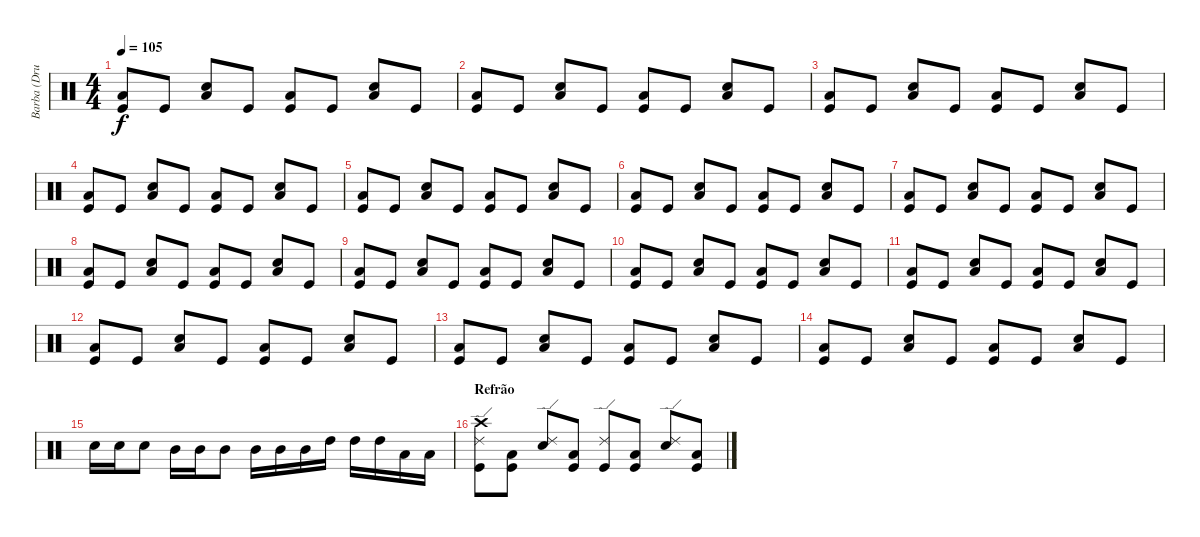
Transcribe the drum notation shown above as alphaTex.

\track ("Barba (Drums)" "Barba (Dru") {instrument percussion}
\staff {score}
\articulation defaults
\ts (4 4)
\tempo 105
\clef neutral
\ks c
("Low Floor Tom (hit)" "Kick (hit)").8{dy f volume 13} "Kick (hit)".8 ("Low Floor Tom (hit)" "Electric Snare (hit)").8 "Kick (hit)".8 ("Low Floor Tom (hit)" "Kick (hit)").8 "Kick (hit)".8 ("Low Floor Tom (hit)" "Electric Snare (hit)").8 "Kick (hit)".8 |
("Low Floor Tom (hit)" "Kick (hit)").8{volume 13} "Kick (hit)".8 ("Low Floor Tom (hit)" "Electric Snare (hit)").8 "Kick (hit)".8 ("Low Floor Tom (hit)" "Kick (hit)").8 "Kick (hit)".8 ("Low Floor Tom (hit)" "Electric Snare (hit)").8 "Kick (hit)".8 |
("Low Floor Tom (hit)" "Kick (hit)").8{volume 13} "Kick (hit)".8 ("Low Floor Tom (hit)" "Electric Snare (hit)").8 "Kick (hit)".8 ("Low Floor Tom (hit)" "Kick (hit)").8 "Kick (hit)".8 ("Low Floor Tom (hit)" "Electric Snare (hit)").8 "Kick (hit)".8 |
("Low Floor Tom (hit)" "Kick (hit)").8{volume 13} "Kick (hit)".8 ("Low Floor Tom (hit)" "Electric Snare (hit)").8 "Kick (hit)".8 ("Low Floor Tom (hit)" "Kick (hit)").8 "Kick (hit)".8 ("Low Floor Tom (hit)" "Electric Snare (hit)").8 "Kick (hit)".8 |
("Low Floor Tom (hit)" "Kick (hit)").8{volume 13} "Kick (hit)".8 ("Low Floor Tom (hit)" "Electric Snare (hit)").8 "Kick (hit)".8 ("Low Floor Tom (hit)" "Kick (hit)").8 "Kick (hit)".8 ("Low Floor Tom (hit)" "Electric Snare (hit)").8 "Kick (hit)".8 |
("Low Floor Tom (hit)" "Kick (hit)").8{volume 13} "Kick (hit)".8 ("Low Floor Tom (hit)" "Electric Snare (hit)").8 "Kick (hit)".8 ("Low Floor Tom (hit)" "Kick (hit)").8 "Kick (hit)".8 ("Low Floor Tom (hit)" "Electric Snare (hit)").8 "Kick (hit)".8 |
("Low Floor Tom (hit)" "Kick (hit)").8{volume 13} "Kick (hit)".8 ("Low Floor Tom (hit)" "Electric Snare (hit)").8 "Kick (hit)".8 ("Low Floor Tom (hit)" "Kick (hit)").8 "Kick (hit)".8 ("Low Floor Tom (hit)" "Electric Snare (hit)").8 "Kick (hit)".8 |
("Low Floor Tom (hit)" "Kick (hit)").8{volume 13} "Kick (hit)".8 ("Low Floor Tom (hit)" "Electric Snare (hit)").8 "Kick (hit)".8 ("Low Floor Tom (hit)" "Kick (hit)").8 "Kick (hit)".8 ("Low Floor Tom (hit)" "Electric Snare (hit)").8 "Kick (hit)".8 |
("Low Floor Tom (hit)" "Kick (hit)").8{volume 13} "Kick (hit)".8 ("Low Floor Tom (hit)" "Electric Snare (hit)").8 "Kick (hit)".8 ("Low Floor Tom (hit)" "Kick (hit)").8 "Kick (hit)".8 ("Low Floor Tom (hit)" "Electric Snare (hit)").8 "Kick (hit)".8 |
("Low Floor Tom (hit)" "Kick (hit)").8{volume 13} "Kick (hit)".8 ("Low Floor Tom (hit)" "Electric Snare (hit)").8 "Kick (hit)".8 ("Low Floor Tom (hit)" "Kick (hit)").8 "Kick (hit)".8 ("Low Floor Tom (hit)" "Electric Snare (hit)").8 "Kick (hit)".8 |
("Low Floor Tom (hit)" "Kick (hit)").8{volume 13} "Kick (hit)".8 ("Low Floor Tom (hit)" "Electric Snare (hit)").8 "Kick (hit)".8 ("Low Floor Tom (hit)" "Kick (hit)").8 "Kick (hit)".8 ("Low Floor Tom (hit)" "Electric Snare (hit)").8 "Kick (hit)".8 |
("Low Floor Tom (hit)" "Kick (hit)").8{volume 13} "Kick (hit)".8 ("Low Floor Tom (hit)" "Electric Snare (hit)").8 "Kick (hit)".8 ("Low Floor Tom (hit)" "Kick (hit)").8 "Kick (hit)".8 ("Low Floor Tom (hit)" "Electric Snare (hit)").8 "Kick (hit)".8 |
("Low Floor Tom (hit)" "Kick (hit)").8{volume 13} "Kick (hit)".8 ("Low Floor Tom (hit)" "Electric Snare (hit)").8 "Kick (hit)".8 ("Low Floor Tom (hit)" "Kick (hit)").8 "Kick (hit)".8 ("Low Floor Tom (hit)" "Electric Snare (hit)").8 "Kick (hit)".8 |
("Low Floor Tom (hit)" "Kick (hit)").8{volume 13} "Kick (hit)".8 ("Low Floor Tom (hit)" "Electric Snare (hit)").8 "Kick (hit)".8 ("Low Floor Tom (hit)" "Kick (hit)").8 "Kick (hit)".8 ("Low Floor Tom (hit)" "Electric Snare (hit)").8 "Kick (hit)".8 |
"Electric Snare (hit)".16{volume 13} "Electric Snare (hit)".16 "Electric Snare (hit)".8 "Mid Tom (hit)".16 "Mid Tom (hit)".16 "Mid Tom (hit)".8 "Mid Tom (hit)".16 "Mid Tom (hit)".16 "Mid Tom (hit)".16 "High Tom (hit)".16 "High Tom (hit)".16 "High Tom (hit)".16 "Low Floor Tom (hit)".16 "Low Floor Tom (hit)".16 |
\section ("" "Refrão")
("Ride (edge) 2" "Kick (hit)" "Crash high (hit)").8{volume 13} ("Low Floor Tom (hit)" "Kick (hit)").8 ("Ride (edge) 2" "Electric Snare (hit)").8 ("Low Floor Tom (hit)" "Kick (hit)").8 ("Ride (edge) 2" "Kick (hit)").8 ("Low Floor Tom (hit)" "Kick (hit)").8 ("Ride (edge) 2" "Electric Snare (hit)").8 ("Low Floor Tom (hit)" "Kick (hit)").8
